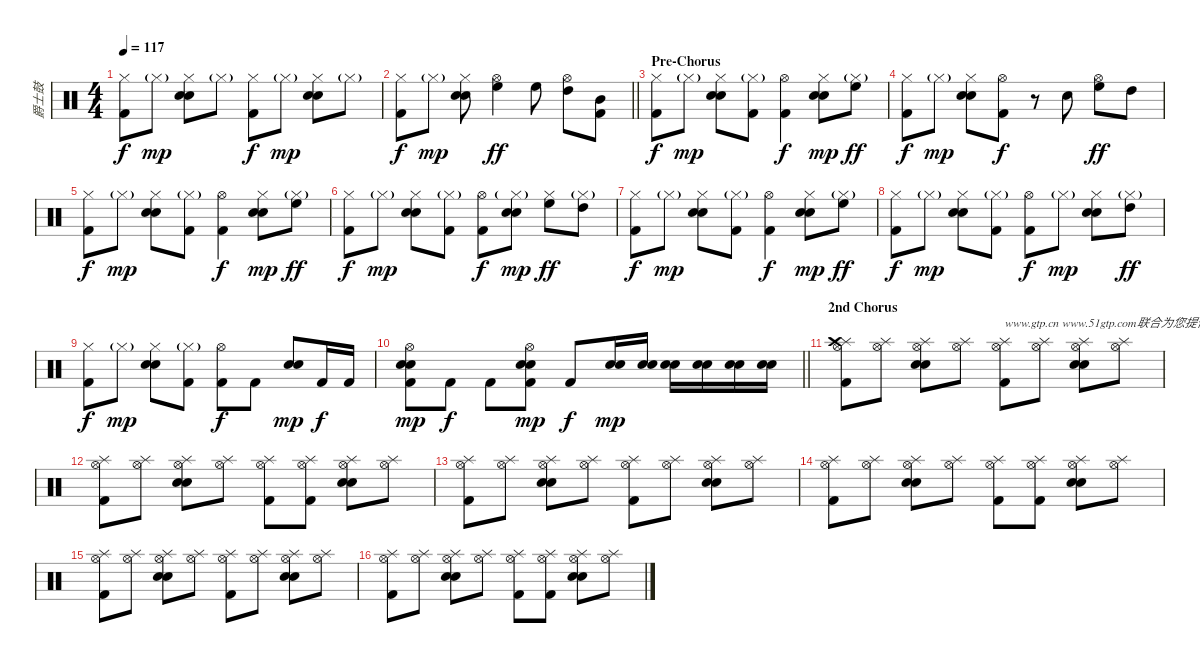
\track ("爵士鼓" "爵士鼓") {instrument percussion}
\staff {score}
\articulation defaults
\ts (4 4)
\tempo 117
\clef neutral
\ks c
("Hi-Hat (closed)" "Kick (hit) 2").8{dy f} "Hi-Hat (closed)"{g}.8{dy mp} ("Hi-Hat (closed)" "Electric Snare (hit)" "Snare (hit) 2").8 "Hi-Hat (closed)"{g}.8 ("Hi-Hat (closed)" "Kick (hit) 2").8{dy f} "Hi-Hat (closed)"{g}.8{dy mp} ("Hi-Hat (closed)" "Electric Snare (hit)" "Snare (hit) 2").8 "Hi-Hat (closed)"{g}.8 |
\barLineRight lightlight
("Hi-Hat (closed)" "Kick (hit) 2").8{dy f} "Hi-Hat (closed)"{g}.8{dy mp} ("Hi-Hat (closed)" "Electric Snare (hit)" "Snare (hit) 2").8 ("Hi-Hat (open)" "High Floor Tom (hit)").4{dy ff} "High Floor Tom (hit)".8 ("Hi-Hat (open)" "High Tom (hit)").8 ("Mid Tom (hit)" "Kick (hit) 2").8 |
\section ("" "Pre-Chorus")
("Hi-Hat (closed)" "Kick (hit) 2").8{dy f} "Hi-Hat (closed)"{g}.8{dy mp} ("Hi-Hat (closed)" "Electric Snare (hit)" "Snare (hit) 2").8 ("Hi-Hat (closed)"{g} "Kick (hit) 2").8 ("Hi-Hat (open)" "Kick (hit) 2").4{dy f} ("Hi-Hat (closed)" "Electric Snare (hit)" "Snare (hit) 2").8{dy mp} ("Hi-Hat (closed)"{g} "High Floor Tom (hit)").8{dy ff} |
("Hi-Hat (closed)" "Kick (hit) 2").8{dy f} "Hi-Hat (closed)"{g}.8{dy mp} ("Hi-Hat (closed)" "Electric Snare (hit)" "Snare (hit) 2").8 ("Hi-Hat (open)" "Kick (hit) 2").8{dy f} r.8 "Electric Snare (hit)".8 ("Hi-Hat (open)" "High Floor Tom (hit)").8{dy ff} "High Tom (hit)".8 |
("Hi-Hat (closed)" "Kick (hit) 2").8{dy f} "Hi-Hat (closed)"{g}.8{dy mp} ("Hi-Hat (closed)" "Electric Snare (hit)" "Snare (hit) 2").8 ("Hi-Hat (closed)"{g} "Kick (hit) 2").8 ("Hi-Hat (open)" "Kick (hit) 2").4{dy f} ("Hi-Hat (closed)" "Electric Snare (hit)" "Snare (hit) 2").8{dy mp} ("Hi-Hat (closed)"{g} "High Floor Tom (hit)").8{dy ff} |
("Hi-Hat (closed)" "Kick (hit) 2").8{dy f} "Hi-Hat (closed)"{g}.8{dy mp} ("Hi-Hat (closed)" "Electric Snare (hit)" "Snare (hit) 2").8 ("Hi-Hat (closed)"{g} "Kick (hit) 2").8 ("Hi-Hat (open)" "Kick (hit) 2").8{dy f} ("Hi-Hat (closed)"{g} "Electric Snare (hit)" "Snare (hit) 2").8{dy mp} ("Hi-Hat (closed)" "High Floor Tom (hit)").8{dy ff} ("Hi-Hat (closed)"{g} "High Tom (hit)").8 |
("Hi-Hat (closed)" "Kick (hit) 2").8{dy f} "Hi-Hat (closed)"{g}.8{dy mp} ("Hi-Hat (closed)" "Electric Snare (hit)" "Snare (hit) 2").8 ("Hi-Hat (closed)"{g} "Kick (hit) 2").8 ("Hi-Hat (open)" "Kick (hit) 2").4{dy f} ("Hi-Hat (closed)" "Electric Snare (hit)" "Snare (hit) 2").8{dy mp} ("Hi-Hat (closed)"{g} "High Floor Tom (hit)").8{dy ff} |
("Hi-Hat (closed)" "Kick (hit) 2").8{dy f} "Hi-Hat (closed)"{g}.8{dy mp} ("Hi-Hat (closed)" "Electric Snare (hit)" "Snare (hit) 2").8 ("Hi-Hat (closed)"{g} "Kick (hit) 2").8 ("Hi-Hat (open)" "Kick (hit) 2").8{dy f} "Hi-Hat (closed)"{g}.8{dy mp} ("Hi-Hat (closed)" "Electric Snare (hit)" "Snare (hit) 2").8 ("Hi-Hat (closed)"{g} "High Tom (hit)").8{dy ff} |
("Hi-Hat (closed)" "Kick (hit) 2").8{dy f} "Hi-Hat (closed)"{g}.8{dy mp} ("Hi-Hat (closed)" "Electric Snare (hit)" "Snare (hit) 2").8 ("Hi-Hat (closed)"{g} "Kick (hit) 2").8 ("Hi-Hat (open)" "Kick (hit) 2").8{dy f} "Kick (hit) 2".8 ("Electric Snare (hit)" "Snare (hit) 2").8{dy mp} "Kick (hit) 2".16{dy f} "Kick (hit) 2".16 |
\barLineRight lightlight
("Hi-Hat (open)" "Electric Snare (hit)" "Snare (hit) 2" "Kick (hit) 2").8{dy mp} "Kick (hit) 2".8{dy f} "Kick (hit) 2".8 ("Hi-Hat (open)" "Electric Snare (hit)" "Snare (hit) 2" "Kick (hit) 2").8{dy mp} "Kick (hit) 2".8{dy f} ("Electric Snare (hit)" "Snare (hit) 2").16{dy mp} ("Electric Snare (hit)" "Snare (hit) 2").16 ("Electric Snare (hit)" "Snare (hit) 2").16 ("Electric Snare (hit)" "Snare (hit) 2").16 ("Electric Snare (hit)" "Snare (hit) 2").16 ("Electric Snare (hit)" "Snare (hit) 2").16 |
\section ("" "2nd Chorus")
("Splash (hit)" "Crash high (hit)" "Hi-Hat (open)" "Kick (hit) 2").8 ("Splash (hit)" "Hi-Hat (open)").8 ("Splash (hit)" "Hi-Hat (open)" "Electric Snare (hit)" "Snare (hit) 2").8 ("Splash (hit)" "Hi-Hat (open)").8 ("Splash (hit)" "Hi-Hat (open)" "Kick (hit) 2").8{txt "www.gtp.cn www.51gtp.com联合为您提供优秀的GTP!"} ("Splash (hit)" "Hi-Hat (open)").8 ("Splash (hit)" "Hi-Hat (open)" "Electric Snare (hit)" "Snare (hit) 2").8 ("Splash (hit)" "Hi-Hat (open)").8 |
("Splash (hit)" "Hi-Hat (open)" "Kick (hit) 2").8 ("Splash (hit)" "Hi-Hat (open)").8 ("Splash (hit)" "Hi-Hat (open)" "Electric Snare (hit)" "Snare (hit) 2").8 ("Splash (hit)" "Hi-Hat (open)").8 ("Splash (hit)" "Hi-Hat (open)" "Kick (hit) 2").8 ("Splash (hit)" "Hi-Hat (open)" "Kick (hit) 2").8 ("Splash (hit)" "Hi-Hat (open)" "Electric Snare (hit)" "Snare (hit) 2").8 ("Splash (hit)" "Hi-Hat (open)").8 |
("Splash (hit)" "Hi-Hat (open)" "Kick (hit) 2").8 ("Splash (hit)" "Hi-Hat (open)").8 ("Splash (hit)" "Hi-Hat (open)" "Electric Snare (hit)" "Snare (hit) 2").8 ("Splash (hit)" "Hi-Hat (open)").8 ("Splash (hit)" "Hi-Hat (open)" "Kick (hit) 2").8 ("Splash (hit)" "Hi-Hat (open)").8 ("Splash (hit)" "Hi-Hat (open)" "Electric Snare (hit)" "Snare (hit) 2").8 ("Splash (hit)" "Hi-Hat (open)").8 |
("Splash (hit)" "Hi-Hat (open)" "Kick (hit) 2").8 ("Splash (hit)" "Hi-Hat (open)").8 ("Splash (hit)" "Hi-Hat (open)" "Electric Snare (hit)" "Snare (hit) 2").8 ("Splash (hit)" "Hi-Hat (open)").8 ("Splash (hit)" "Hi-Hat (open)" "Kick (hit) 2").8 ("Splash (hit)" "Hi-Hat (open)" "Kick (hit) 2").8 ("Splash (hit)" "Hi-Hat (open)" "Electric Snare (hit)" "Snare (hit) 2").8 ("Splash (hit)" "Hi-Hat (open)").8 |
("Splash (hit)" "Hi-Hat (open)" "Kick (hit) 2").8 ("Splash (hit)" "Hi-Hat (open)").8 ("Splash (hit)" "Hi-Hat (open)" "Electric Snare (hit)" "Snare (hit) 2").8 ("Splash (hit)" "Hi-Hat (open)").8 ("Splash (hit)" "Hi-Hat (open)" "Kick (hit) 2").8 ("Splash (hit)" "Hi-Hat (open)").8 ("Splash (hit)" "Hi-Hat (open)" "Electric Snare (hit)" "Snare (hit) 2").8 ("Splash (hit)" "Hi-Hat (open)").8 |
("Splash (hit)" "Hi-Hat (open)" "Kick (hit) 2").8 ("Splash (hit)" "Hi-Hat (open)").8 ("Splash (hit)" "Hi-Hat (open)" "Electric Snare (hit)" "Snare (hit) 2").8 ("Splash (hit)" "Hi-Hat (open)").8 ("Splash (hit)" "Hi-Hat (open)" "Kick (hit) 2").8 ("Splash (hit)" "Hi-Hat (open)" "Kick (hit) 2").8 ("Splash (hit)" "Hi-Hat (open)" "Electric Snare (hit)" "Snare (hit) 2").8 ("Splash (hit)" "Hi-Hat (open)").8
